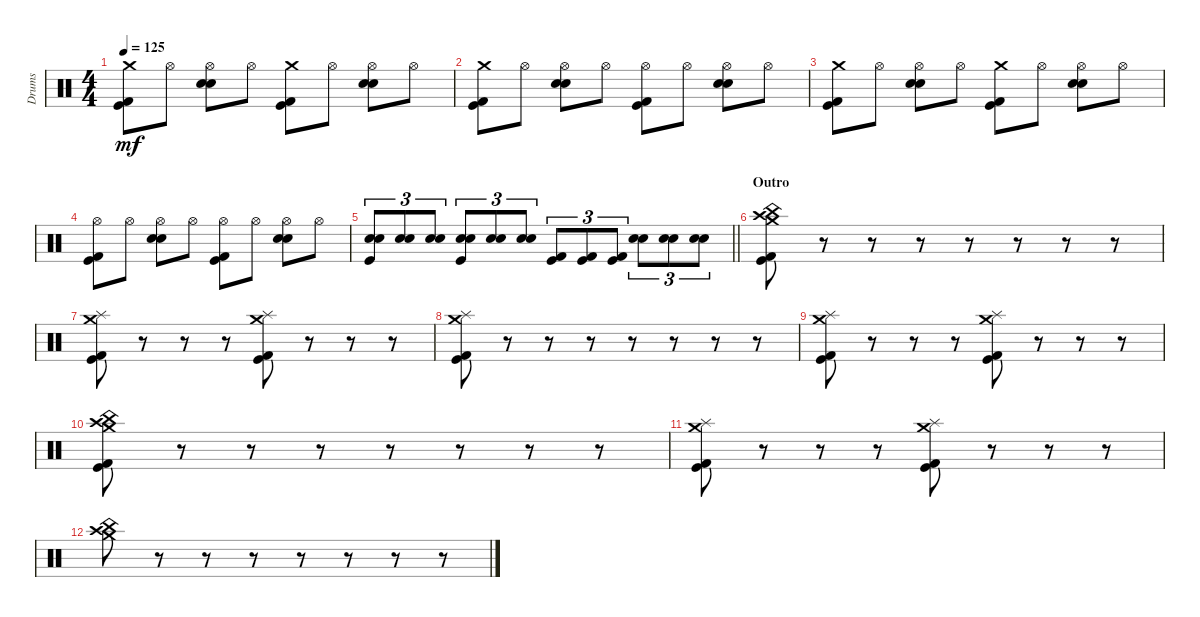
\track ("Drums" "Drums") {instrument percussion}
\staff {score}
\articulation defaults
\ts (4 4)
\tempo 125
\clef neutral
\ks c
("Crash medium (hit)" "Kick (hit) 2" "Kick (hit)").8{dy mf} "Hi-Hat (open)".8 ("Hi-Hat (open)" "Snare (hit) 2" "Electric Snare (hit)").8 "Hi-Hat (open)".8 ("Crash medium (hit)" "Kick (hit) 2" "Kick (hit)").8 "Hi-Hat (open)".8 ("Hi-Hat (open)" "Snare (hit) 2" "Electric Snare (hit)").8 "Hi-Hat (open)".8 |
("Crash medium (hit)" "Kick (hit) 2" "Kick (hit)").8 "Hi-Hat (open)".8 ("Hi-Hat (open)" "Snare (hit) 2" "Electric Snare (hit)").8 "Hi-Hat (open)".8 ("Hi-Hat (open)" "Kick (hit) 2" "Kick (hit)").8 "Hi-Hat (open)".8 ("Hi-Hat (open)" "Snare (hit) 2" "Electric Snare (hit)").8 "Hi-Hat (open)".8 |
("Crash medium (hit)" "Kick (hit) 2" "Kick (hit)").8 "Hi-Hat (open)".8 ("Hi-Hat (open)" "Snare (hit) 2" "Electric Snare (hit)").8 "Hi-Hat (open)".8 ("Crash medium (hit)" "Kick (hit) 2" "Kick (hit)").8 "Hi-Hat (open)".8 ("Hi-Hat (open)" "Snare (hit) 2" "Electric Snare (hit)").8 "Hi-Hat (open)".8 |
("Hi-Hat (open)" "Kick (hit) 2" "Kick (hit)").8 "Hi-Hat (open)".8 ("Hi-Hat (open)" "Snare (hit) 2" "Electric Snare (hit)").8 "Hi-Hat (open)".8 ("Hi-Hat (open)" "Kick (hit) 2" "Kick (hit)").8 "Hi-Hat (open)".8 ("Hi-Hat (open)" "Snare (hit) 2" "Electric Snare (hit)").8 "Hi-Hat (open)".8 |
\barLineRight lightlight
("Snare (hit) 2" "Electric Snare (hit)" "Kick (hit)").8{tu (3 2)} ("Snare (hit) 2" "Electric Snare (hit)").8{tu (3 2)} ("Snare (hit) 2" "Electric Snare (hit)").8{tu (3 2)} ("Snare (hit) 2" "Electric Snare (hit)" "Kick (hit)").8{tu (3 2)} ("Snare (hit) 2" "Electric Snare (hit)").8{tu (3 2)} ("Snare (hit) 2" "Electric Snare (hit)").8{tu (3 2)} ("Kick (hit) 2" "Kick (hit)").8{tu (3 2)} ("Kick (hit) 2" "Kick (hit)").8{tu (3 2)} ("Kick (hit) 2" "Kick (hit)").8{tu (3 2)} ("Snare (hit) 2" "Electric Snare (hit)").8{tu (3 2)} ("Snare (hit) 2" "Electric Snare (hit)").8{tu (3 2)} ("Snare (hit) 2" "Electric Snare (hit)").8{tu (3 2)} |
\section ("" "Outro")
("Crash high (hit)" "Crash medium (hit)" "China (hit)" "Kick (hit) 2" "Kick (hit)").8 r.8 r.8 r.8 r.8 r.8 r.8 r.8 |
("Crash medium (hit)" "Splash (hit)" "Kick (hit) 2" "Kick (hit)").8 r.8 r.8 r.8 ("Crash medium (hit)" "Splash (hit)" "Kick (hit) 2" "Kick (hit)").8 r.8 r.8 r.8 |
("Crash medium (hit)" "Splash (hit)" "Kick (hit) 2" "Kick (hit)").8 r.8 r.8 r.8 r.8 r.8 r.8 r.8 |
("Crash medium (hit)" "Splash (hit)" "Kick (hit) 2" "Kick (hit)").8 r.8 r.8 r.8 ("Crash medium (hit)" "Splash (hit)" "Kick (hit) 2" "Kick (hit)").8 r.8 r.8 r.8 |
("Crash high (hit)" "Crash medium (hit)" "China (hit)" "Kick (hit) 2" "Kick (hit)").8 r.8 r.8 r.8 r.8 r.8 r.8 r.8 |
("Crash medium (hit)" "Splash (hit)" "Kick (hit) 2" "Kick (hit)").8 r.8 r.8 r.8 ("Crash medium (hit)" "Splash (hit)" "Kick (hit) 2" "Kick (hit)").8 r.8 r.8 r.8 |
("Crash high (hit)" "Crash medium (hit)" "China (hit)").8 r.8 r.8 r.8 r.8 r.8 r.8 r.8
